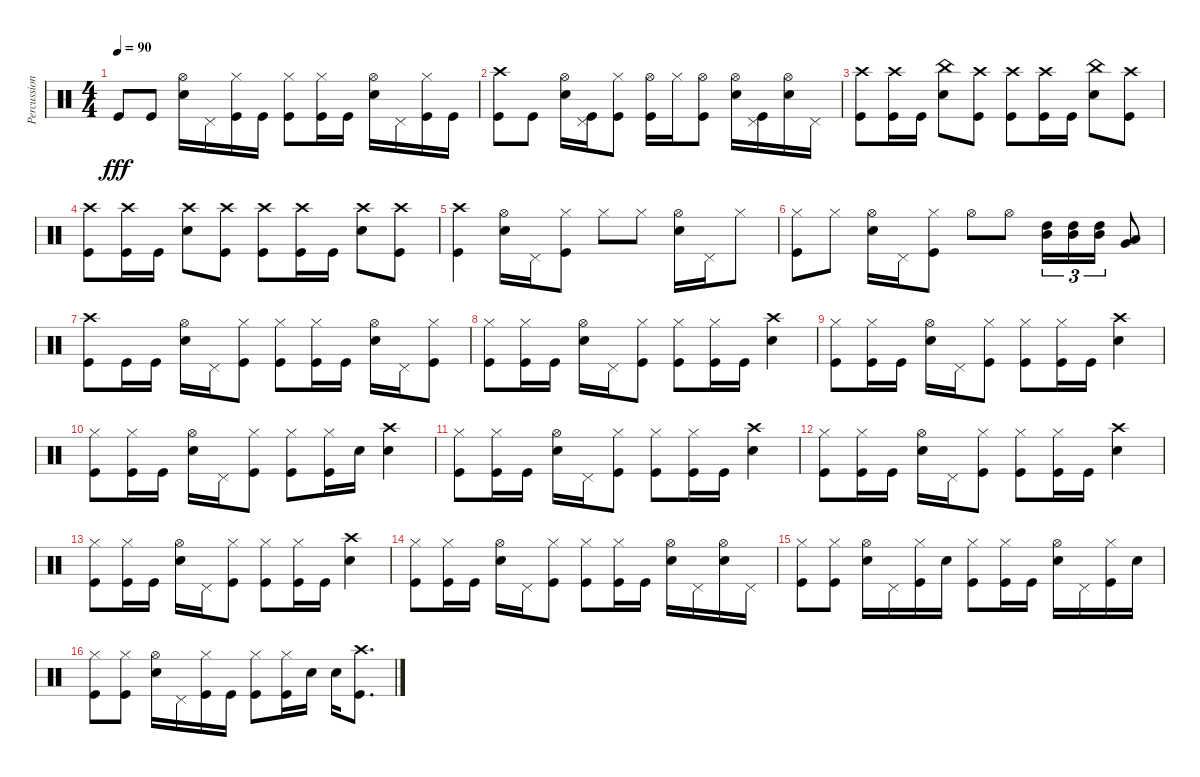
\track ("Percussion" "Percussion") {instrument percussion}
\staff {score}
\articulation defaults
\ts (4 4)
\tempo 90
\clef neutral
\ks c "Kick (hit)".8{dy fff} "Kick (hit)".8
("Hi-Hat (open)" "Electric Snare (hit)").16 "Pedal Hi-Hat (hit)".16 ("Hi-Hat (closed)" "Kick (hit)").16 "Kick (hit)".16 ("Hi-Hat (closed)" "Kick (hit)").8 ("Hi-Hat (closed)" "Kick (hit)").16 "Kick (hit)".16 ("Hi-Hat (open)" "Electric Snare (hit)").16 "Pedal Hi-Hat (hit)".16 ("Hi-Hat (closed)" "Kick (hit)").16 "Kick (hit)".16 |
("Crash high (hit)" "Kick (hit)").8 "Kick (hit)".8 ("Hi-Hat (open)" "Electric Snare (hit)").16 ("Pedal Hi-Hat (hit)" "Kick (hit)").16 ("Hi-Hat (closed)" "Kick (hit)").8 ("Hi-Hat (open)" "Kick (hit)").16 "Hi-Hat (closed)".16 ("Hi-Hat (open)" "Kick (hit)").8 ("Hi-Hat (open)" "Electric Snare (hit)").16 ("Pedal Hi-Hat (hit)" "Kick (hit)").16 ("Hi-Hat (open)" "Electric Snare (hit)").16 "Pedal Hi-Hat (hit)".16 |
("Crash high (hit)" "Kick (hit)").8 ("Crash high (hit)" "Kick (hit)").16 "Kick (hit)".16 ("China (hit)" "Electric Snare (hit)").8 ("Crash high (hit)" "Kick (hit)").8 ("Crash high (hit)" "Kick (hit)").8 ("Crash high (hit)" "Kick (hit)").16 "Kick (hit)".16 ("China (hit)" "Electric Snare (hit)").8 ("Crash high (hit)" "Kick (hit)").8 |
("Crash high (hit)" "Kick (hit)").8 ("Crash high (hit)" "Kick (hit)").16 "Kick (hit)".16 ("Crash high (hit)" "Electric Snare (hit)").8 ("Crash high (hit)" "Kick (hit)").8 ("Crash high (hit)" "Kick (hit)").8 ("Crash high (hit)" "Kick (hit)").16 "Kick (hit)".16 ("Crash high (hit)" "Electric Snare (hit)").8 ("Crash high (hit)" "Kick (hit)").8 |
("Crash high (hit)" "Kick (hit)").4 ("Hi-Hat (open)" "Electric Snare (hit)").16 "Pedal Hi-Hat (hit)".16 ("Hi-Hat (closed)" "Kick (hit)").8 "Hi-Hat (closed)".8 "Hi-Hat (closed)".8 ("Hi-Hat (open)" "Electric Snare (hit)").16 "Pedal Hi-Hat (hit)".16 "Hi-Hat (closed)".8 |
("Hi-Hat (closed)" "Kick (hit)").8 "Hi-Hat (closed)".8 ("Hi-Hat (open)" "Electric Snare (hit)").16 "Pedal Hi-Hat (hit)".16 ("Hi-Hat (closed)" "Kick (hit)").8 "Hi-Hat (open)".8 "Hi-Hat (open)".8 ("High Tom (hit)" "Mid Tom (hit)").16{tu (3 2)} ("High Tom (hit)" "Mid Tom (hit)").16{tu (3 2)} ("High Tom (hit)" "Mid Tom (hit)").16{tu (3 2)} ("Low Tom (hit)" "Very Low Tom (hit)").8 |
("Crash high (hit)" "Kick (hit)").8 "Kick (hit)".16 "Kick (hit)".16 ("Hi-Hat (open)" "Electric Snare (hit)").16 "Pedal Hi-Hat (hit)".16 ("Hi-Hat (closed)" "Kick (hit)").8 ("Hi-Hat (closed)" "Kick (hit)").8 ("Hi-Hat (closed)" "Kick (hit)").16 "Kick (hit)".16 ("Hi-Hat (open)" "Electric Snare (hit)").16 "Pedal Hi-Hat (hit)".16 ("Hi-Hat (closed)" "Kick (hit)").8 |
("Hi-Hat (closed)" "Kick (hit)").8 ("Hi-Hat (closed)" "Kick (hit)").16 "Kick (hit)".16 ("Hi-Hat (open)" "Electric Snare (hit)").16 "Pedal Hi-Hat (hit)".16 ("Hi-Hat (closed)" "Kick (hit)").8 ("Hi-Hat (closed)" "Kick (hit)").8 ("Hi-Hat (closed)" "Kick (hit)").16 "Kick (hit)".16 ("Crash high (hit)" "Electric Snare (hit)").4 |
("Hi-Hat (closed)" "Kick (hit)").8 ("Hi-Hat (closed)" "Kick (hit)").16 "Kick (hit)".16 ("Hi-Hat (open)" "Electric Snare (hit)").16 "Pedal Hi-Hat (hit)".16 ("Hi-Hat (closed)" "Kick (hit)").8 ("Hi-Hat (closed)" "Kick (hit)").8 ("Hi-Hat (closed)" "Kick (hit)").16 "Kick (hit)".16 ("Crash high (hit)" "Electric Snare (hit)").4 |
("Hi-Hat (closed)" "Kick (hit)").8 ("Hi-Hat (closed)" "Kick (hit)").16 "Kick (hit)".16 ("Hi-Hat (open)" "Electric Snare (hit)").16 "Pedal Hi-Hat (hit)".16 ("Hi-Hat (closed)" "Kick (hit)").8 ("Hi-Hat (closed)" "Kick (hit)").8 ("Hi-Hat (closed)" "Kick (hit)").16 "Electric Snare (hit)".16 ("Crash high (hit)" "Electric Snare (hit)").4 |
("Hi-Hat (closed)" "Kick (hit)").8 ("Hi-Hat (closed)" "Kick (hit)").16 "Kick (hit)".16 ("Hi-Hat (open)" "Electric Snare (hit)").16 "Pedal Hi-Hat (hit)".16 ("Hi-Hat (closed)" "Kick (hit)").8 ("Hi-Hat (closed)" "Kick (hit)").8 ("Hi-Hat (closed)" "Kick (hit)").16 "Kick (hit)".16 ("Crash high (hit)" "Electric Snare (hit)").4 |
("Hi-Hat (closed)" "Kick (hit)").8 ("Hi-Hat (closed)" "Kick (hit)").16 "Kick (hit)".16 ("Hi-Hat (open)" "Electric Snare (hit)").16 "Pedal Hi-Hat (hit)".16 ("Hi-Hat (closed)" "Kick (hit)").8 ("Hi-Hat (closed)" "Kick (hit)").8 ("Hi-Hat (closed)" "Kick (hit)").16 "Kick (hit)".16 ("Crash high (hit)" "Electric Snare (hit)").4 |
("Hi-Hat (closed)" "Kick (hit)").8 ("Hi-Hat (closed)" "Kick (hit)").16 "Kick (hit)".16 ("Hi-Hat (open)" "Electric Snare (hit)").16 "Pedal Hi-Hat (hit)".16 ("Hi-Hat (closed)" "Kick (hit)").8 ("Hi-Hat (closed)" "Kick (hit)").8 ("Hi-Hat (closed)" "Kick (hit)").16 "Kick (hit)".16 ("Crash high (hit)" "Electric Snare (hit)").4 |
("Hi-Hat (closed)" "Kick (hit)").8 ("Hi-Hat (closed)" "Kick (hit)").16 "Kick (hit)".16 ("Hi-Hat (open)" "Electric Snare (hit)").16 "Pedal Hi-Hat (hit)".16 ("Hi-Hat (closed)" "Kick (hit)").8 ("Hi-Hat (closed)" "Kick (hit)").8 ("Hi-Hat (closed)" "Kick (hit)").16 "Kick (hit)".16 ("Hi-Hat (open)" "Electric Snare (hit)").16 "Pedal Hi-Hat (hit)".16 ("Hi-Hat (open)" "Electric Snare (hit)").16 "Pedal Hi-Hat (hit)".16 |
("Hi-Hat (closed)" "Kick (hit)").8 ("Hi-Hat (closed)" "Kick (hit)").8 ("Hi-Hat (open)" "Electric Snare (hit)").16 "Pedal Hi-Hat (hit)".16 ("Hi-Hat (closed)" "Kick (hit)").16 "Electric Snare (hit)".16 ("Hi-Hat (closed)" "Kick (hit)").8 ("Hi-Hat (closed)" "Kick (hit)").16 "Kick (hit)".16 ("Hi-Hat (open)" "Electric Snare (hit)").16 "Pedal Hi-Hat (hit)".16 ("Hi-Hat (closed)" "Kick (hit)").16 "Electric Snare (hit)".16 |
("Hi-Hat (closed)" "Kick (hit)").8 ("Hi-Hat (closed)" "Kick (hit)").8 ("Hi-Hat (open)" "Electric Snare (hit)").16 "Pedal Hi-Hat (hit)".16 ("Hi-Hat (closed)" "Kick (hit)").16 "Kick (hit)".16 ("Hi-Hat (closed)" "Kick (hit)").8 ("Hi-Hat (closed)" "Kick (hit)").16 "Electric Snare (hit)".16 "Electric Snare (hit)".16 ("Crash high (hit)" "Kick (hit)").8{d}
